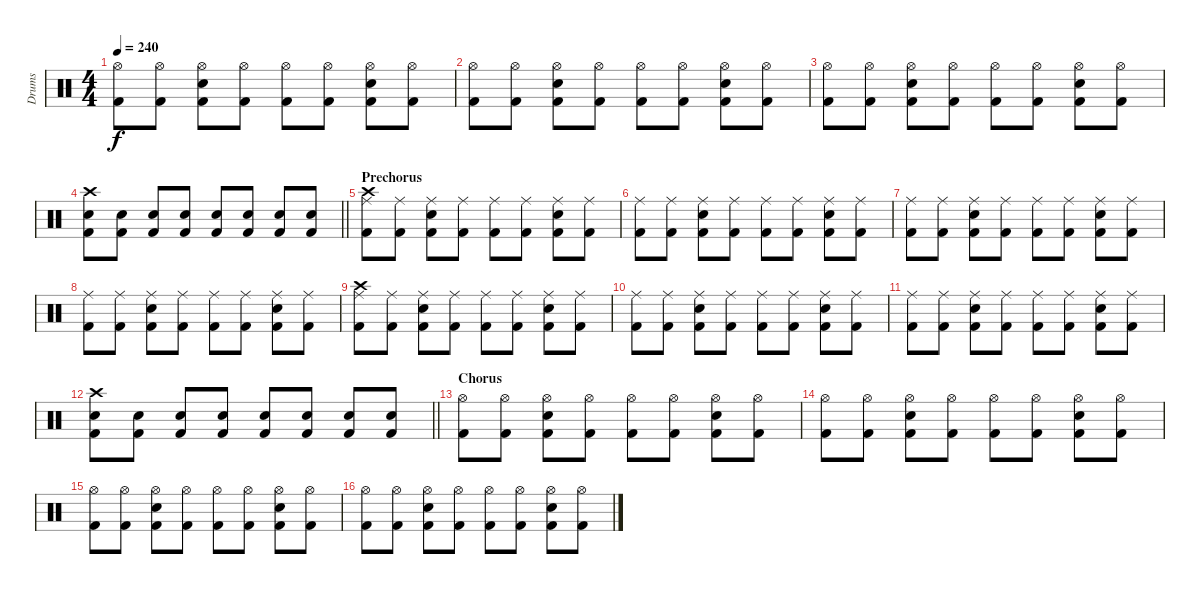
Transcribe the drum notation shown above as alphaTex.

\track ("Drums" "Drums") {instrument percussion}
\staff {score}
\articulation defaults
\ts (4 4)
\tempo 240
\clef neutral
\ks c
("Kick (hit) 2" "Hi-Hat (open)").8{dy f} ("Kick (hit) 2" "Hi-Hat (open)").8 ("Kick (hit) 2" "Snare (hit) 2" "Hi-Hat (open)").8 ("Kick (hit) 2" "Hi-Hat (open)").8 ("Kick (hit) 2" "Hi-Hat (open)").8 ("Kick (hit) 2" "Hi-Hat (open)").8 ("Kick (hit) 2" "Snare (hit) 2" "Hi-Hat (open)").8 ("Kick (hit) 2" "Hi-Hat (open)").8 |
("Kick (hit) 2" "Hi-Hat (open)").8 ("Kick (hit) 2" "Hi-Hat (open)").8 ("Kick (hit) 2" "Snare (hit) 2" "Hi-Hat (open)").8 ("Kick (hit) 2" "Hi-Hat (open)").8 ("Kick (hit) 2" "Hi-Hat (open)").8 ("Kick (hit) 2" "Hi-Hat (open)").8 ("Kick (hit) 2" "Snare (hit) 2" "Hi-Hat (open)").8 ("Kick (hit) 2" "Hi-Hat (open)").8 |
("Kick (hit) 2" "Hi-Hat (open)").8 ("Kick (hit) 2" "Hi-Hat (open)").8 ("Kick (hit) 2" "Snare (hit) 2" "Hi-Hat (open)").8 ("Kick (hit) 2" "Hi-Hat (open)").8 ("Kick (hit) 2" "Hi-Hat (open)").8 ("Kick (hit) 2" "Hi-Hat (open)").8 ("Kick (hit) 2" "Snare (hit) 2" "Hi-Hat (open)").8 ("Kick (hit) 2" "Hi-Hat (open)").8 |
\barLineRight lightlight
("Kick (hit) 2" "Snare (hit) 2" "Crash high (hit)").8 ("Kick (hit) 2" "Snare (hit) 2").8 ("Kick (hit) 2" "Snare (hit) 2").8 ("Kick (hit) 2" "Snare (hit) 2").8 ("Kick (hit) 2" "Snare (hit) 2").8 ("Kick (hit) 2" "Snare (hit) 2").8 ("Kick (hit) 2" "Snare (hit) 2").8 ("Kick (hit) 2" "Snare (hit) 2").8 |
\section ("" "Prechorus")
("Crash high (hit)" "Ride (middle)" "Kick (hit) 2").8 ("Ride (middle)" "Kick (hit) 2").8 ("Ride (middle)" "Snare (hit) 2" "Kick (hit) 2").8 ("Ride (middle)" "Kick (hit) 2").8 ("Ride (middle)" "Kick (hit) 2").8 ("Ride (middle)" "Kick (hit) 2").8 ("Ride (middle)" "Snare (hit) 2" "Kick (hit) 2").8 ("Ride (middle)" "Kick (hit) 2").8 |
("Ride (middle)" "Kick (hit) 2").8 ("Ride (middle)" "Kick (hit) 2").8 ("Ride (middle)" "Snare (hit) 2" "Kick (hit) 2").8 ("Ride (middle)" "Kick (hit) 2").8 ("Ride (middle)" "Kick (hit) 2").8 ("Ride (middle)" "Kick (hit) 2").8 ("Ride (middle)" "Snare (hit) 2" "Kick (hit) 2").8 ("Ride (middle)" "Kick (hit) 2").8 |
("Ride (middle)" "Kick (hit) 2").8 ("Ride (middle)" "Kick (hit) 2").8 ("Ride (middle)" "Snare (hit) 2" "Kick (hit) 2").8 ("Ride (middle)" "Kick (hit) 2").8 ("Ride (middle)" "Kick (hit) 2").8 ("Ride (middle)" "Kick (hit) 2").8 ("Ride (middle)" "Snare (hit) 2" "Kick (hit) 2").8 ("Ride (middle)" "Kick (hit) 2").8 |
("Ride (middle)" "Kick (hit) 2").8 ("Ride (middle)" "Kick (hit) 2").8 ("Ride (middle)" "Snare (hit) 2" "Kick (hit) 2").8 ("Ride (middle)" "Kick (hit) 2").8 ("Ride (middle)" "Kick (hit) 2").8 ("Ride (middle)" "Kick (hit) 2").8 ("Ride (middle)" "Snare (hit) 2" "Kick (hit) 2").8 ("Ride (middle)" "Kick (hit) 2").8 |
("Crash high (hit)" "Ride (middle)" "Kick (hit) 2").8 ("Ride (middle)" "Kick (hit) 2").8 ("Ride (middle)" "Snare (hit) 2" "Kick (hit) 2").8 ("Ride (middle)" "Kick (hit) 2").8 ("Ride (middle)" "Kick (hit) 2").8 ("Ride (middle)" "Kick (hit) 2").8 ("Ride (middle)" "Snare (hit) 2" "Kick (hit) 2").8 ("Ride (middle)" "Kick (hit) 2").8 |
("Ride (middle)" "Kick (hit) 2").8 ("Ride (middle)" "Kick (hit) 2").8 ("Ride (middle)" "Snare (hit) 2" "Kick (hit) 2").8 ("Ride (middle)" "Kick (hit) 2").8 ("Ride (middle)" "Kick (hit) 2").8 ("Ride (middle)" "Kick (hit) 2").8 ("Ride (middle)" "Snare (hit) 2" "Kick (hit) 2").8 ("Ride (middle)" "Kick (hit) 2").8 |
("Ride (middle)" "Kick (hit) 2").8 ("Ride (middle)" "Kick (hit) 2").8 ("Ride (middle)" "Snare (hit) 2" "Kick (hit) 2").8 ("Ride (middle)" "Kick (hit) 2").8 ("Ride (middle)" "Kick (hit) 2").8 ("Ride (middle)" "Kick (hit) 2").8 ("Ride (middle)" "Snare (hit) 2" "Kick (hit) 2").8 ("Ride (middle)" "Kick (hit) 2").8 |
\barLineRight lightlight
("Crash high (hit)" "Snare (hit) 2" "Kick (hit) 2").8 ("Snare (hit) 2" "Kick (hit) 2").8 ("Snare (hit) 2" "Kick (hit) 2").8 ("Snare (hit) 2" "Kick (hit) 2").8 ("Snare (hit) 2" "Kick (hit) 2").8 ("Snare (hit) 2" "Kick (hit) 2").8 ("Snare (hit) 2" "Kick (hit) 2").8 ("Snare (hit) 2" "Kick (hit) 2").8 |
\section ("" "Chorus")
("Kick (hit) 2" "Hi-Hat (open)").8 ("Kick (hit) 2" "Hi-Hat (open)").8 ("Kick (hit) 2" "Snare (hit) 2" "Hi-Hat (open)").8 ("Kick (hit) 2" "Hi-Hat (open)").8 ("Kick (hit) 2" "Hi-Hat (open)").8 ("Kick (hit) 2" "Hi-Hat (open)").8 ("Kick (hit) 2" "Snare (hit) 2" "Hi-Hat (open)").8 ("Kick (hit) 2" "Hi-Hat (open)").8 |
("Kick (hit) 2" "Hi-Hat (open)").8 ("Kick (hit) 2" "Hi-Hat (open)").8 ("Kick (hit) 2" "Snare (hit) 2" "Hi-Hat (open)").8 ("Kick (hit) 2" "Hi-Hat (open)").8 ("Kick (hit) 2" "Hi-Hat (open)").8 ("Kick (hit) 2" "Hi-Hat (open)").8 ("Kick (hit) 2" "Snare (hit) 2" "Hi-Hat (open)").8 ("Kick (hit) 2" "Hi-Hat (open)").8 |
("Kick (hit) 2" "Hi-Hat (open)").8 ("Kick (hit) 2" "Hi-Hat (open)").8 ("Kick (hit) 2" "Snare (hit) 2" "Hi-Hat (open)").8 ("Kick (hit) 2" "Hi-Hat (open)").8 ("Kick (hit) 2" "Hi-Hat (open)").8 ("Kick (hit) 2" "Hi-Hat (open)").8 ("Kick (hit) 2" "Snare (hit) 2" "Hi-Hat (open)").8 ("Kick (hit) 2" "Hi-Hat (open)").8 |
("Kick (hit) 2" "Hi-Hat (open)").8 ("Kick (hit) 2" "Hi-Hat (open)").8 ("Kick (hit) 2" "Snare (hit) 2" "Hi-Hat (open)").8 ("Kick (hit) 2" "Hi-Hat (open)").8 ("Kick (hit) 2" "Hi-Hat (open)").8 ("Kick (hit) 2" "Hi-Hat (open)").8 ("Kick (hit) 2" "Snare (hit) 2" "Hi-Hat (open)").8 ("Kick (hit) 2" "Hi-Hat (open)").8
